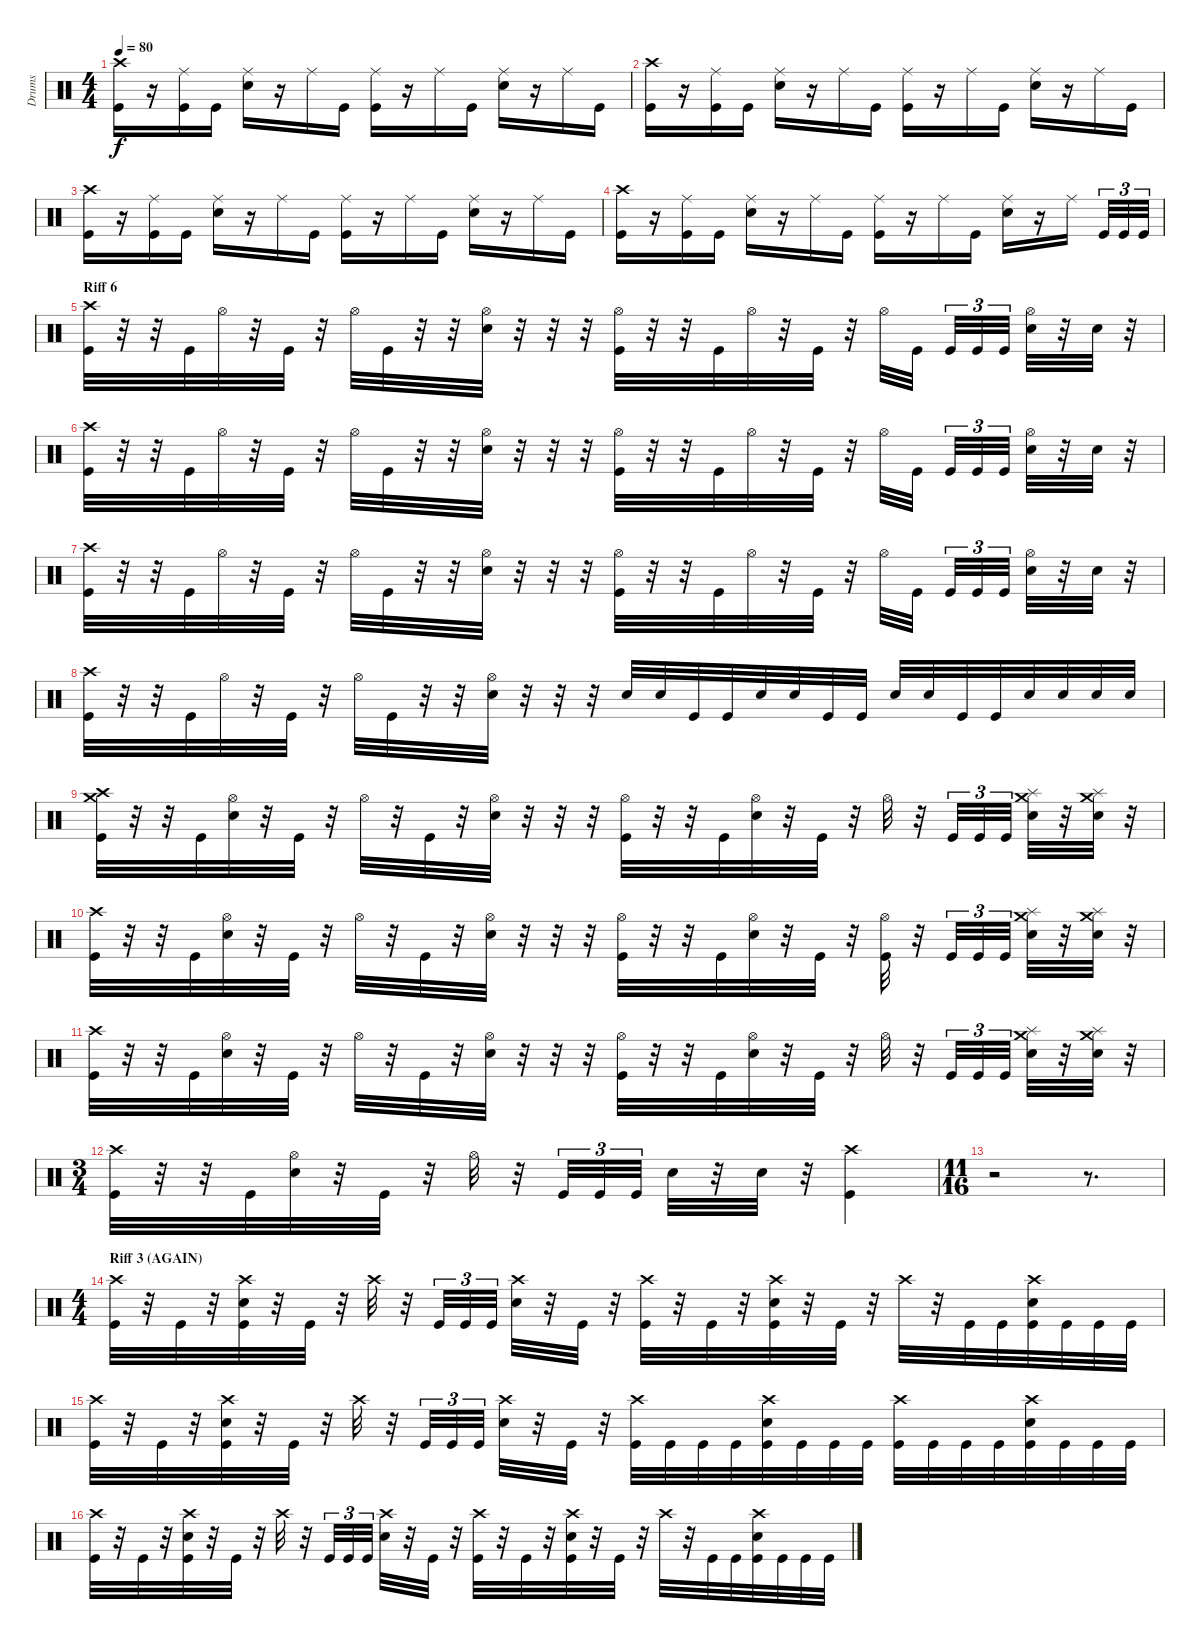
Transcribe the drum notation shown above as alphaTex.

\track ("Drums" "Drums") {instrument percussion}
\staff {score}
\articulation defaults
\ts (4 4)
\tempo 80
\clef neutral
\ks c
("Crash high (hit)" "Kick (hit)").16{dy f} r.16 ("Ride (middle)" "Kick (hit)").16 "Kick (hit)".16 ("Ride (middle)" "Electric Snare (hit)").16 r.16 "Ride (middle)".16 "Kick (hit)".16 ("Ride (middle)" "Kick (hit)").16 r.16 "Ride (middle)".16 "Kick (hit)".16 ("Ride (middle)" "Electric Snare (hit)").16 r.16 "Ride (middle)".16 "Kick (hit)".16 |
("Crash high (hit)" "Kick (hit)").16 r.16 ("Ride (middle)" "Kick (hit)").16 "Kick (hit)".16 ("Ride (middle)" "Electric Snare (hit)").16 r.16 "Ride (middle)".16 "Kick (hit)".16 ("Ride (middle)" "Kick (hit)").16 r.16 "Ride (middle)".16 "Kick (hit)".16 ("Ride (middle)" "Electric Snare (hit)").16 r.16 "Ride (middle)".16 "Kick (hit)".16 |
("Crash high (hit)" "Kick (hit)").16 r.16 ("Ride (middle)" "Kick (hit)").16 "Kick (hit)".16 ("Ride (middle)" "Electric Snare (hit)").16 r.16 "Ride (middle)".16 "Kick (hit)".16 ("Ride (middle)" "Kick (hit)").16 r.16 "Ride (middle)".16 "Kick (hit)".16 ("Ride (middle)" "Electric Snare (hit)").16 r.16 "Ride (middle)".16 "Kick (hit)".16 |
("Crash high (hit)" "Kick (hit)").16 r.16 ("Ride (middle)" "Kick (hit)").16 "Kick (hit)".16 ("Ride (middle)" "Electric Snare (hit)").16 r.16 "Ride (middle)".16 "Kick (hit)".16 ("Ride (middle)" "Kick (hit)").16 r.16 "Ride (middle)".16 "Kick (hit)".16 ("Ride (middle)" "Electric Snare (hit)").16 r.16 "Ride (middle)".16 "Kick (hit)".32{tu (3 2)} "Kick (hit)".32{tu (3 2)} "Kick (hit)".32{tu (3 2)} |
\section ("" "Riff 6")
("Crash high (hit)" "Kick (hit)").32 r.32 r.32 "Kick (hit)".32 "Hi-Hat (open)".32 r.32 "Kick (hit)".32 r.32 "Hi-Hat (open)".32 "Kick (hit)".32 r.32 r.32 ("Hi-Hat (open)" "Electric Snare (hit)").32 r.32 r.32 r.32 ("Hi-Hat (open)" "Kick (hit)").32 r.32 r.32 "Kick (hit)".32 "Hi-Hat (open)".32 r.32 "Kick (hit)".32 r.32 "Hi-Hat (open)".32 "Kick (hit)".32 "Kick (hit)".32{tu (3 2)} "Kick (hit)".32{tu (3 2)} "Kick (hit)".32{tu (3 2)} ("Hi-Hat (open)" "Electric Snare (hit)").32 r.32 "Electric Snare (hit)".32 r.32 |
("Crash high (hit)" "Kick (hit)").32 r.32 r.32 "Kick (hit)".32 "Hi-Hat (open)".32 r.32 "Kick (hit)".32 r.32 "Hi-Hat (open)".32 "Kick (hit)".32 r.32 r.32 ("Hi-Hat (open)" "Electric Snare (hit)").32 r.32 r.32 r.32 ("Hi-Hat (open)" "Kick (hit)").32 r.32 r.32 "Kick (hit)".32 "Hi-Hat (open)".32 r.32 "Kick (hit)".32 r.32 "Hi-Hat (open)".32 "Kick (hit)".32 "Kick (hit)".32{tu (3 2)} "Kick (hit)".32{tu (3 2)} "Kick (hit)".32{tu (3 2)} ("Hi-Hat (open)" "Electric Snare (hit)").32 r.32 "Electric Snare (hit)".32 r.32 |
("Crash high (hit)" "Kick (hit)").32 r.32 r.32 "Kick (hit)".32 "Hi-Hat (open)".32 r.32 "Kick (hit)".32 r.32 "Hi-Hat (open)".32 "Kick (hit)".32 r.32 r.32 ("Hi-Hat (open)" "Electric Snare (hit)").32 r.32 r.32 r.32 ("Hi-Hat (open)" "Kick (hit)").32 r.32 r.32 "Kick (hit)".32 "Hi-Hat (open)".32 r.32 "Kick (hit)".32 r.32 "Hi-Hat (open)".32 "Kick (hit)".32 "Kick (hit)".32{tu (3 2)} "Kick (hit)".32{tu (3 2)} "Kick (hit)".32{tu (3 2)} ("Hi-Hat (open)" "Electric Snare (hit)").32 r.32 "Electric Snare (hit)".32 r.32 |
("Crash high (hit)" "Kick (hit)").32 r.32 r.32 "Kick (hit)".32 "Hi-Hat (open)".32 r.32 "Kick (hit)".32 r.32 "Hi-Hat (open)".32 "Kick (hit)".32 r.32 r.32 ("Hi-Hat (open)" "Electric Snare (hit)").32 r.32 r.32 r.32 "Electric Snare (hit)".32 "Electric Snare (hit)".32 "Kick (hit)".32 "Kick (hit)".32 "Electric Snare (hit)".32 "Electric Snare (hit)".32 "Kick (hit)".32 "Kick (hit)".32 "Electric Snare (hit)".32 "Electric Snare (hit)".32 "Kick (hit)".32 "Kick (hit)".32 "Electric Snare (hit)".32 "Electric Snare (hit)".32 "Electric Snare (hit)".32 "Electric Snare (hit)".32 |
("Crash high (hit)" "Crash medium (hit)" "Kick (hit)").32 r.32 r.32 "Kick (hit)".32 ("Hi-Hat (open)" "Electric Snare (hit)").32 r.32 "Kick (hit)".32 r.32 "Hi-Hat (open)".32 r.32 "Kick (hit)".32 r.32 ("Hi-Hat (open)" "Electric Snare (hit)").32 r.32 r.32 r.32 ("Hi-Hat (open)" "Kick (hit)").32 r.32 r.32 "Kick (hit)".32 ("Hi-Hat (open)" "Electric Snare (hit)").32 r.32 "Kick (hit)".32 r.32 "Hi-Hat (open)".32 r.32 "Kick (hit)".32{tu (3 2)} "Kick (hit)".32{tu (3 2)} "Kick (hit)".32{tu (3 2)} ("Splash (hit)" "Crash medium (hit)" "Electric Snare (hit)").32 r.32 ("Splash (hit)" "Crash medium (hit)" "Electric Snare (hit)").32 r.32 |
("Crash high (hit)" "Kick (hit)").32 r.32 r.32 "Kick (hit)".32 ("Hi-Hat (open)" "Electric Snare (hit)").32 r.32 "Kick (hit)".32 r.32 "Hi-Hat (open)".32 r.32 "Kick (hit)".32 r.32 ("Hi-Hat (open)" "Electric Snare (hit)").32 r.32 r.32 r.32 ("Hi-Hat (open)" "Kick (hit)").32 r.32 r.32 "Kick (hit)".32 ("Hi-Hat (open)" "Electric Snare (hit)").32 r.32 "Kick (hit)".32 r.32 ("Hi-Hat (open)" "Kick (hit)").32 r.32 "Kick (hit)".32{tu (3 2)} "Kick (hit)".32{tu (3 2)} "Kick (hit)".32{tu (3 2)} ("Splash (hit)" "Crash medium (hit)" "Electric Snare (hit)").32 r.32 ("Splash (hit)" "Crash medium (hit)" "Electric Snare (hit)").32 r.32 |
("Crash high (hit)" "Kick (hit)").32 r.32 r.32 "Kick (hit)".32 ("Hi-Hat (open)" "Electric Snare (hit)").32 r.32 "Kick (hit)".32 r.32 "Hi-Hat (open)".32 r.32 "Kick (hit)".32 r.32 ("Hi-Hat (open)" "Electric Snare (hit)").32 r.32 r.32 r.32 ("Hi-Hat (open)" "Kick (hit)").32 r.32 r.32 "Kick (hit)".32 ("Hi-Hat (open)" "Electric Snare (hit)").32 r.32 "Kick (hit)".32 r.32 "Hi-Hat (open)".32 r.32 "Kick (hit)".32{tu (3 2)} "Kick (hit)".32{tu (3 2)} "Kick (hit)".32{tu (3 2)} ("Splash (hit)" "Crash medium (hit)" "Electric Snare (hit)").32 r.32 ("Splash (hit)" "Crash medium (hit)" "Electric Snare (hit)").32 r.32 |
\ts (3 4)
("Crash high (hit)" "Kick (hit)").32 r.32 r.32 "Kick (hit)".32 ("Hi-Hat (open)" "Electric Snare (hit)").32 r.32 "Kick (hit)".32 r.32 "Hi-Hat (open)".32 r.32 "Kick (hit)".32{tu (3 2)} "Kick (hit)".32{tu (3 2)} "Kick (hit)".32{tu (3 2)} "Electric Snare (hit)".32 r.32 "Electric Snare (hit)".32 r.32 ("Crash high (hit)" "Kick (hit)").4 |
\ts (11 16)
r.2 r.8{d} |
\ts (4 4)
\section ("" "Riff 3 (AGAIN)")
("Crash high (hit)" "Kick (hit)").32 r.32 "Kick (hit)".32 r.32 ("Crash high (hit)" "Electric Snare (hit)" "Kick (hit)").32 r.32 "Kick (hit)".32 r.32 "Crash high (hit)".32 r.32 "Kick (hit)".32{tu (3 2)} "Kick (hit)".32{tu (3 2)} "Kick (hit)".32{tu (3 2)} ("Crash high (hit)" "Electric Snare (hit)").32 r.32 "Kick (hit)".32 r.32 ("Crash high (hit)" "Kick (hit)").32 r.32 "Kick (hit)".32 r.32 ("Crash high (hit)" "Electric Snare (hit)" "Kick (hit)").32 r.32 "Kick (hit)".32 r.32 "Crash high (hit)".32 r.32 "Kick (hit)".32 "Kick (hit)".32 ("Crash high (hit)" "Electric Snare (hit)" "Kick (hit)").32 "Kick (hit)".32 "Kick (hit)".32 "Kick (hit)".32 |
("Crash high (hit)" "Kick (hit)").32 r.32 "Kick (hit)".32 r.32 ("Crash high (hit)" "Electric Snare (hit)" "Kick (hit)").32 r.32 "Kick (hit)".32 r.32 "Crash high (hit)".32 r.32 "Kick (hit)".32{tu (3 2)} "Kick (hit)".32{tu (3 2)} "Kick (hit)".32{tu (3 2)} ("Crash high (hit)" "Electric Snare (hit)").32 r.32 "Kick (hit)".32 r.32 ("Crash high (hit)" "Kick (hit)").32 "Kick (hit)".32 "Kick (hit)".32 "Kick (hit)".32 ("Crash high (hit)" "Electric Snare (hit)" "Kick (hit)").32 "Kick (hit)".32 "Kick (hit)".32 "Kick (hit)".32 ("Crash high (hit)" "Kick (hit)").32 "Kick (hit)".32 "Kick (hit)".32 "Kick (hit)".32 ("Crash high (hit)" "Electric Snare (hit)" "Kick (hit)").32 "Kick (hit)".32 "Kick (hit)".32 "Kick (hit)".32 |
("Crash high (hit)" "Kick (hit)").32 r.32 "Kick (hit)".32 r.32 ("Crash high (hit)" "Electric Snare (hit)" "Kick (hit)").32 r.32 "Kick (hit)".32 r.32 "Crash high (hit)".32 r.32 "Kick (hit)".32{tu (3 2)} "Kick (hit)".32{tu (3 2)} "Kick (hit)".32{tu (3 2)} ("Crash high (hit)" "Electric Snare (hit)").32 r.32 "Kick (hit)".32 r.32 ("Crash high (hit)" "Kick (hit)").32 r.32 "Kick (hit)".32 r.32 ("Crash high (hit)" "Electric Snare (hit)" "Kick (hit)").32 r.32 "Kick (hit)".32 r.32 "Crash high (hit)".32 r.32 "Kick (hit)".32 "Kick (hit)".32 ("Crash high (hit)" "Electric Snare (hit)" "Kick (hit)").32 "Kick (hit)".32 "Kick (hit)".32 "Kick (hit)".32
